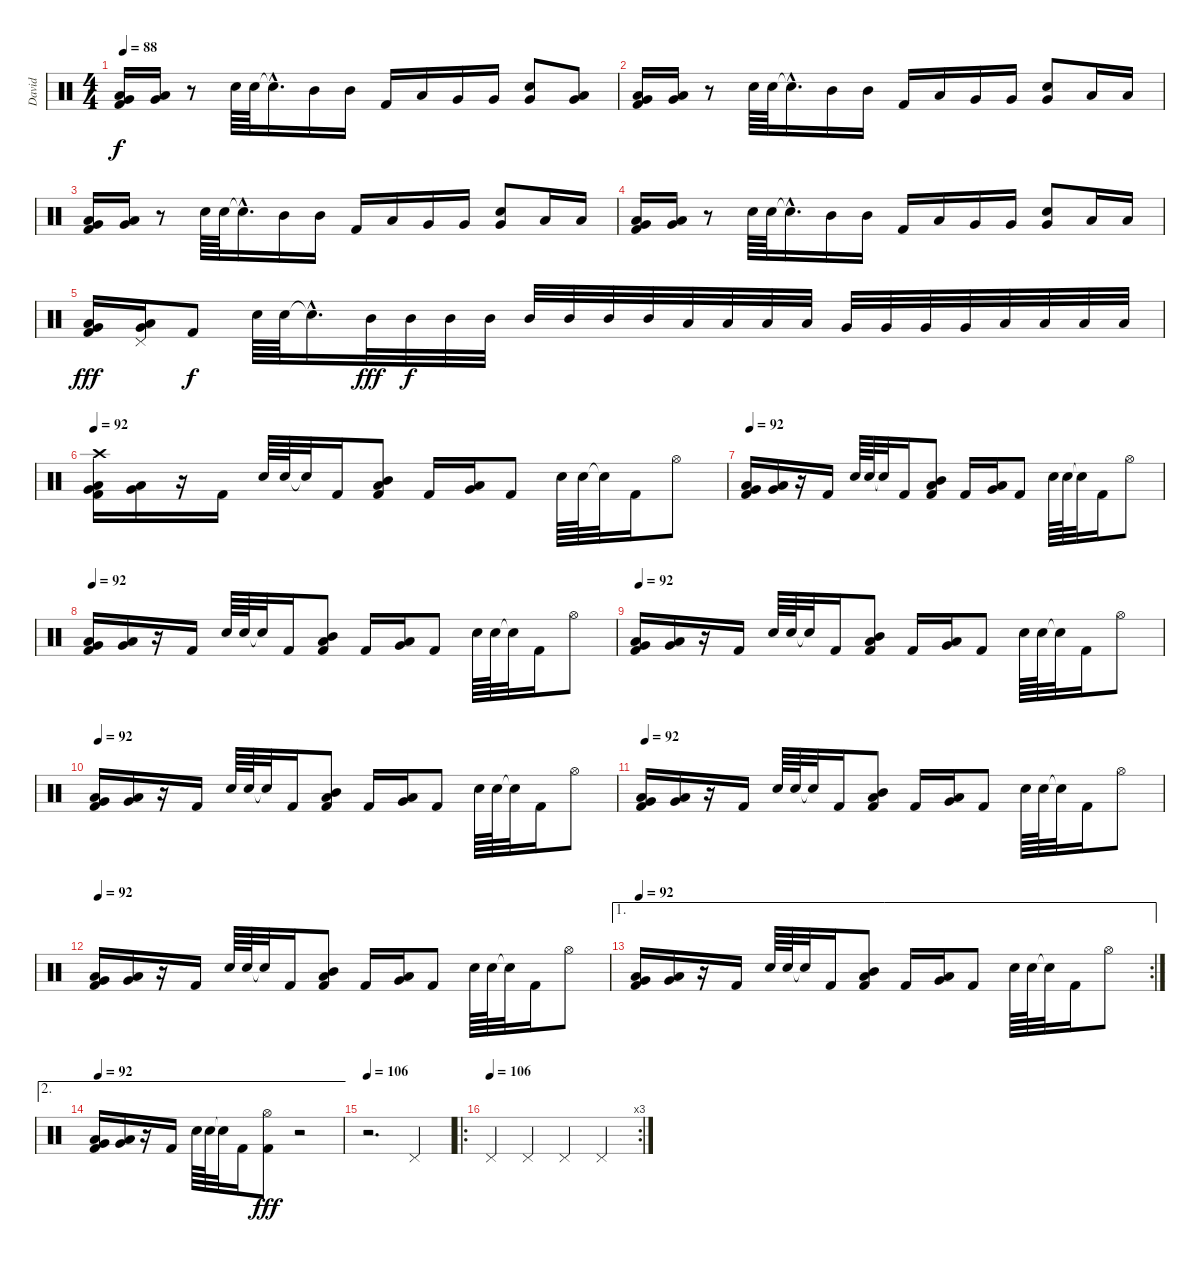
\track ("David" "David") {instrument percussion}
\staff {score}
\articulation defaults
\ts (4 4)
\tempo 88
\clef neutral
\ks c
("Low Tom (hit)" "Very Low Tom (hit)" "Kick (hit) 2").16{dy f} ("Low Tom (hit)" "Very Low Tom (hit)").16 r.8 "Snare (hit) 2".64 "Snare (hit) 2".64 "Snare (hit)"{hac t}.16{d} "Mid Tom (hit)".16 "Mid Tom (hit)".16 "Kick (hit) 2".16 "Low Tom (hit)".16 "Very Low Tom (hit)".16 "Very Low Tom (hit)".16 ("Very Low Tom (hit)" "Snare (hit) 2").8 ("Low Tom (hit)" "Very Low Tom (hit)").8 |
("Low Tom (hit)" "Very Low Tom (hit)" "Kick (hit) 2").16 ("Low Tom (hit)" "Very Low Tom (hit)").16 r.8 "Snare (hit) 2".64 "Snare (hit) 2".64 "Snare (hit)"{hac t}.16{d} "Mid Tom (hit)".16 "Mid Tom (hit)".16 "Kick (hit) 2".16 "Low Tom (hit)".16 "Very Low Tom (hit)".16 "Very Low Tom (hit)".16 ("Very Low Tom (hit)" "Snare (hit) 2").8 "Low Floor Tom (hit)".16 "Low Floor Tom (hit)".16 |
("Low Tom (hit)" "Very Low Tom (hit)" "Kick (hit) 2").16 ("Low Tom (hit)" "Very Low Tom (hit)").16 r.8 "Snare (hit) 2".64 "Snare (hit) 2".64 "Snare (hit)"{hac t}.16{d} "Mid Tom (hit)".16 "Mid Tom (hit)".16 "Kick (hit) 2".16 "Low Tom (hit)".16 "Very Low Tom (hit)".16 "Very Low Tom (hit)".16 ("Very Low Tom (hit)" "Snare (hit) 2").8 "Low Floor Tom (hit)".16 "Low Floor Tom (hit)".16 |
("Low Tom (hit)" "Very Low Tom (hit)" "Kick (hit) 2").16 ("Low Tom (hit)" "Very Low Tom (hit)").16 r.8 "Snare (hit) 2".64 "Snare (hit) 2".64 "Snare (hit)"{hac t}.16{d} "Mid Tom (hit)".16 "Mid Tom (hit)".16 "Kick (hit) 2".16 "Low Tom (hit)".16 "Very Low Tom (hit)".16 "Very Low Tom (hit)".16 ("Very Low Tom (hit)" "Snare (hit) 2").8 "Low Floor Tom (hit)".16 "Low Floor Tom (hit)".16 |
("Low Tom (hit)" "Very Low Tom (hit)" "Kick (hit) 2").16{dy fff} ("Low Tom (hit)" "Very Low Tom (hit)" "Pedal Hi-Hat (hit)").16 "Kick (hit) 2".8{dy f} "Snare (hit) 2".64 "Snare (hit) 2".64 "Snare (hit)"{hac t}.16{d} "Mid Tom (hit)".32{dy fff} "Mid Tom (hit)".32{dy f} "Mid Tom (hit)".32 "Mid Tom (hit)".32 "Mid Tom (hit)".32 "Mid Tom (hit)".32 "Mid Tom (hit)".32 "Mid Tom (hit)".32 "Low Tom (hit)".32 "Low Tom (hit)".32 "Low Tom (hit)".32 "Low Tom (hit)".32 "Very Low Tom (hit)".32 "Very Low Tom (hit)".32 "Very Low Tom (hit)".32 "Very Low Tom (hit)".32 "Low Floor Tom (hit)".32 "Low Floor Tom (hit)".32 "Low Floor Tom (hit)".32 "Low Floor Tom (hit)".32 |
\tempo 92
("Crash high (hit)" "Low Tom (hit)" "Very Low Tom (hit)" "Kick (hit) 2").16 ("Low Tom (hit)" "Very Low Tom (hit)").16 r.16 "Kick (hit) 2".16 "Snare (hit) 2".64 "Snare (hit) 2".64 "Snare (hit)"{t}.32 "Kick (hit) 2".16 ("Mid Tom (hit)" "Low Tom (hit)" "Kick (hit) 2").8 "Kick (hit) 2".16 ("Low Tom (hit)" "Very Low Tom (hit)").16 "Kick (hit) 2".8 "Snare (hit) 2".64 "Snare (hit) 2".64 "Snare (hit)"{t}.32 "Kick (hit) 2".16 "Hi-Hat (open)".8 |
\tempo 92
("Low Tom (hit)" "Very Low Tom (hit)" "Kick (hit) 2").16 ("Low Tom (hit)" "Very Low Tom (hit)").16 r.16 "Kick (hit) 2".16 "Snare (hit) 2".64 "Snare (hit) 2".64 "Snare (hit)"{t}.32 "Kick (hit) 2".16 ("Mid Tom (hit)" "Low Tom (hit)" "Kick (hit) 2").8 "Kick (hit) 2".16 ("Low Tom (hit)" "Very Low Tom (hit)").16 "Kick (hit) 2".8 "Snare (hit) 2".64 "Snare (hit) 2".64 "Snare (hit)"{t}.32 "Kick (hit) 2".16 "Hi-Hat (open)".8 |
\tempo 92
("Low Tom (hit)" "Very Low Tom (hit)" "Kick (hit) 2").16 ("Low Tom (hit)" "Very Low Tom (hit)").16 r.16 "Kick (hit) 2".16 "Snare (hit) 2".64 "Snare (hit) 2".64 "Snare (hit)"{t}.32 "Kick (hit) 2".16 ("Mid Tom (hit)" "Low Tom (hit)" "Kick (hit) 2").8 "Kick (hit) 2".16 ("Low Tom (hit)" "Very Low Tom (hit)").16 "Kick (hit) 2".8 "Snare (hit) 2".64 "Snare (hit) 2".64 "Snare (hit)"{t}.32 "Kick (hit) 2".16 "Hi-Hat (open)".8 |
\tempo 92
("Low Tom (hit)" "Very Low Tom (hit)" "Kick (hit) 2").16 ("Low Tom (hit)" "Very Low Tom (hit)").16 r.16 "Kick (hit) 2".16 "Snare (hit) 2".64 "Snare (hit) 2".64 "Snare (hit)"{t}.32 "Kick (hit) 2".16 ("Mid Tom (hit)" "Low Tom (hit)" "Kick (hit) 2").8 "Kick (hit) 2".16 ("Low Tom (hit)" "Very Low Tom (hit)").16 "Kick (hit) 2".8 "Snare (hit) 2".64 "Snare (hit) 2".64 "Snare (hit)"{t}.32 "Kick (hit) 2".16 "Hi-Hat (open)".8 |
\tempo 92
("Low Tom (hit)" "Very Low Tom (hit)" "Kick (hit) 2").16 ("Low Tom (hit)" "Very Low Tom (hit)").16 r.16 "Kick (hit) 2".16 "Snare (hit) 2".64 "Snare (hit) 2".64 "Snare (hit)"{t}.32 "Kick (hit) 2".16 ("Mid Tom (hit)" "Low Tom (hit)" "Kick (hit) 2").8 "Kick (hit) 2".16 ("Low Tom (hit)" "Very Low Tom (hit)").16 "Kick (hit) 2".8 "Snare (hit) 2".64 "Snare (hit) 2".64 "Snare (hit)"{t}.32 "Kick (hit) 2".16 "Hi-Hat (open)".8 |
\tempo 92
("Low Tom (hit)" "Very Low Tom (hit)" "Kick (hit) 2").16 ("Low Tom (hit)" "Very Low Tom (hit)").16 r.16 "Kick (hit) 2".16 "Snare (hit) 2".64 "Snare (hit) 2".64 "Snare (hit)"{t}.32 "Kick (hit) 2".16 ("Mid Tom (hit)" "Low Tom (hit)" "Kick (hit) 2").8 "Kick (hit) 2".16 ("Low Tom (hit)" "Very Low Tom (hit)").16 "Kick (hit) 2".8 "Snare (hit) 2".64 "Snare (hit) 2".64 "Snare (hit)"{t}.32 "Kick (hit) 2".16 "Hi-Hat (open)".8 |
\tempo 92
("Low Tom (hit)" "Very Low Tom (hit)" "Kick (hit) 2").16 ("Low Tom (hit)" "Very Low Tom (hit)").16 r.16 "Kick (hit) 2".16 "Snare (hit) 2".64 "Snare (hit) 2".64 "Snare (hit)"{t}.32 "Kick (hit) 2".16 ("Mid Tom (hit)" "Low Tom (hit)" "Kick (hit) 2").8 "Kick (hit) 2".16 ("Low Tom (hit)" "Very Low Tom (hit)").16 "Kick (hit) 2".8 "Snare (hit) 2".64 "Snare (hit) 2".64 "Snare (hit)"{t}.32 "Kick (hit) 2".16 "Hi-Hat (open)".8 |
\ae 1
\rc 2
\tempo 92
("Low Tom (hit)" "Very Low Tom (hit)" "Kick (hit) 2").16 ("Low Tom (hit)" "Very Low Tom (hit)").16 r.16 "Kick (hit) 2".16 "Snare (hit) 2".64 "Snare (hit) 2".64 "Snare (hit)"{t}.32 "Kick (hit) 2".16 ("Mid Tom (hit)" "Low Tom (hit)" "Kick (hit) 2").8 "Kick (hit) 2".16 ("Low Tom (hit)" "Very Low Tom (hit)").16 "Kick (hit) 2".8 "Snare (hit) 2".64 "Snare (hit) 2".64 "Snare (hit)"{t}.32 "Kick (hit) 2".16 "Hi-Hat (open)".8 |
\ae 2
\tempo 92
("Low Tom (hit)" "Very Low Tom (hit)" "Kick (hit) 2").16 ("Low Tom (hit)" "Very Low Tom (hit)").16 r.16 "Kick (hit) 2".16 "Snare (hit) 2".64 "Snare (hit) 2".64 "Snare (hit)"{t}.32 "Kick (hit) 2".16 ("Hi-Hat (open)" "Kick (hit) 2").8{dy fff} r.2 |
\tempo 106
r.2{d} "Pedal Hi-Hat (hit)".4 |
\ro
\rc 3
\tempo (106)
"Pedal Hi-Hat (hit)".4 "Pedal Hi-Hat (hit)".4 "Pedal Hi-Hat (hit)".4 "Pedal Hi-Hat (hit)".4
